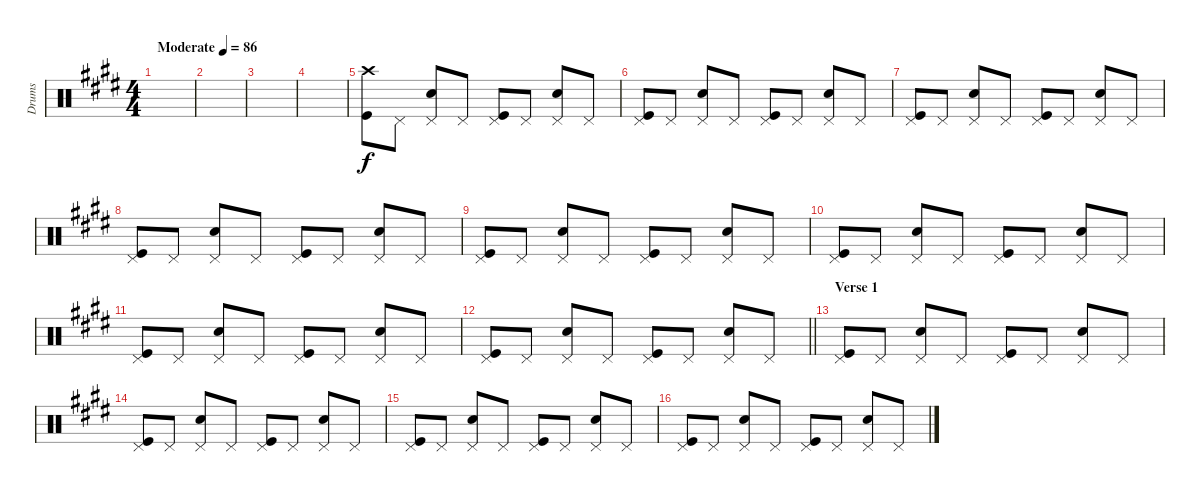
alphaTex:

\track ("Drums" "Drums") {instrument percussion}
\staff {score}
\articulation defaults
\ts (4 4)
\tempo (86 "Moderate")
\clef neutral
\ks e
|
|
|
|
("Crash high (hit)" "Kick (hit)").8 "Pedal Hi-Hat (hit)".8 ("Pedal Hi-Hat (hit)" "Snare (hit) 2").8 "Pedal Hi-Hat (hit)".8 ("Pedal Hi-Hat (hit)" "Kick (hit)").8 "Pedal Hi-Hat (hit)".8 ("Pedal Hi-Hat (hit)" "Snare (hit) 2").8 "Pedal Hi-Hat (hit)".8 |
("Pedal Hi-Hat (hit)" "Kick (hit)").8 "Pedal Hi-Hat (hit)".8 ("Pedal Hi-Hat (hit)" "Snare (hit) 2").8 "Pedal Hi-Hat (hit)".8 ("Pedal Hi-Hat (hit)" "Kick (hit)").8 "Pedal Hi-Hat (hit)".8 ("Pedal Hi-Hat (hit)" "Snare (hit) 2").8 "Pedal Hi-Hat (hit)".8 |
("Pedal Hi-Hat (hit)" "Kick (hit)").8 "Pedal Hi-Hat (hit)".8 ("Pedal Hi-Hat (hit)" "Snare (hit) 2").8 "Pedal Hi-Hat (hit)".8 ("Pedal Hi-Hat (hit)" "Kick (hit)").8 "Pedal Hi-Hat (hit)".8 ("Pedal Hi-Hat (hit)" "Snare (hit) 2").8 "Pedal Hi-Hat (hit)".8 |
("Pedal Hi-Hat (hit)" "Kick (hit)").8 "Pedal Hi-Hat (hit)".8 ("Pedal Hi-Hat (hit)" "Snare (hit) 2").8 "Pedal Hi-Hat (hit)".8 ("Pedal Hi-Hat (hit)" "Kick (hit)").8 "Pedal Hi-Hat (hit)".8 ("Pedal Hi-Hat (hit)" "Snare (hit) 2").8 "Pedal Hi-Hat (hit)".8 |
("Pedal Hi-Hat (hit)" "Kick (hit)").8 "Pedal Hi-Hat (hit)".8 ("Pedal Hi-Hat (hit)" "Snare (hit) 2").8 "Pedal Hi-Hat (hit)".8 ("Pedal Hi-Hat (hit)" "Kick (hit)").8 "Pedal Hi-Hat (hit)".8 ("Pedal Hi-Hat (hit)" "Snare (hit) 2").8 "Pedal Hi-Hat (hit)".8 |
("Pedal Hi-Hat (hit)" "Kick (hit)").8 "Pedal Hi-Hat (hit)".8 ("Pedal Hi-Hat (hit)" "Snare (hit) 2").8 "Pedal Hi-Hat (hit)".8 ("Pedal Hi-Hat (hit)" "Kick (hit)").8 "Pedal Hi-Hat (hit)".8 ("Pedal Hi-Hat (hit)" "Snare (hit) 2").8 "Pedal Hi-Hat (hit)".8 |
("Pedal Hi-Hat (hit)" "Kick (hit)").8 "Pedal Hi-Hat (hit)".8 ("Pedal Hi-Hat (hit)" "Snare (hit) 2").8 "Pedal Hi-Hat (hit)".8 ("Pedal Hi-Hat (hit)" "Kick (hit)").8 "Pedal Hi-Hat (hit)".8 ("Pedal Hi-Hat (hit)" "Snare (hit) 2").8 "Pedal Hi-Hat (hit)".8 |
\barLineRight lightlight
("Pedal Hi-Hat (hit)" "Kick (hit)").8 "Pedal Hi-Hat (hit)".8 ("Pedal Hi-Hat (hit)" "Snare (hit) 2").8 "Pedal Hi-Hat (hit)".8 ("Pedal Hi-Hat (hit)" "Kick (hit)").8 "Pedal Hi-Hat (hit)".8 ("Pedal Hi-Hat (hit)" "Snare (hit) 2").8 "Pedal Hi-Hat (hit)".8 |
\section ("" "Verse 1")
("Pedal Hi-Hat (hit)" "Kick (hit)").8 "Pedal Hi-Hat (hit)".8 ("Pedal Hi-Hat (hit)" "Snare (hit) 2").8 "Pedal Hi-Hat (hit)".8 ("Pedal Hi-Hat (hit)" "Kick (hit)").8 "Pedal Hi-Hat (hit)".8 ("Pedal Hi-Hat (hit)" "Snare (hit) 2").8 "Pedal Hi-Hat (hit)".8 |
("Pedal Hi-Hat (hit)" "Kick (hit)").8 "Pedal Hi-Hat (hit)".8 ("Pedal Hi-Hat (hit)" "Snare (hit) 2").8 "Pedal Hi-Hat (hit)".8 ("Pedal Hi-Hat (hit)" "Kick (hit)").8 "Pedal Hi-Hat (hit)".8 ("Pedal Hi-Hat (hit)" "Snare (hit) 2").8 "Pedal Hi-Hat (hit)".8 |
("Pedal Hi-Hat (hit)" "Kick (hit)").8 "Pedal Hi-Hat (hit)".8 ("Pedal Hi-Hat (hit)" "Snare (hit) 2").8 "Pedal Hi-Hat (hit)".8 ("Pedal Hi-Hat (hit)" "Kick (hit)").8 "Pedal Hi-Hat (hit)".8 ("Pedal Hi-Hat (hit)" "Snare (hit) 2").8 "Pedal Hi-Hat (hit)".8 |
("Pedal Hi-Hat (hit)" "Kick (hit)").8 "Pedal Hi-Hat (hit)".8 ("Pedal Hi-Hat (hit)" "Snare (hit) 2").8 "Pedal Hi-Hat (hit)".8 ("Pedal Hi-Hat (hit)" "Kick (hit)").8 "Pedal Hi-Hat (hit)".8 ("Pedal Hi-Hat (hit)" "Snare (hit) 2").8 "Pedal Hi-Hat (hit)".8
